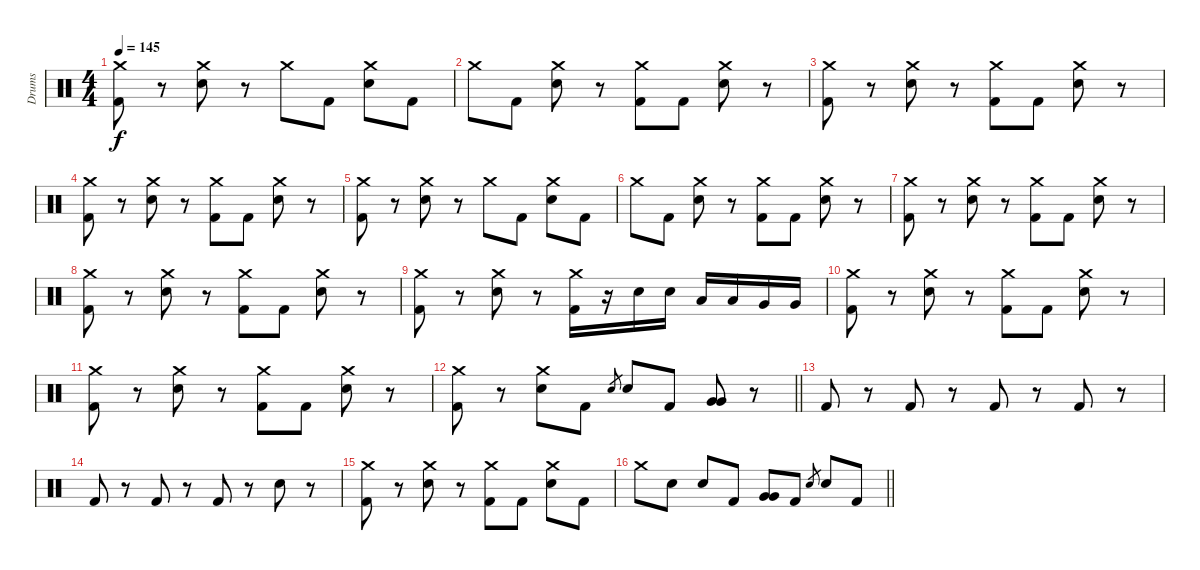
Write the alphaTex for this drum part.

\track ("Drums" "Drums") {instrument percussion}
\staff {score}
\articulation defaults
\ts (4 4)
\tempo 145
\clef neutral
\ks c
("Crash medium (hit)" "Kick (hit) 2").8{dy f} r.8 ("Crash medium (hit)" "Electric Snare (hit)").8 r.8 "Crash medium (hit)".8 "Kick (hit) 2".8 ("Crash medium (hit)" "Electric Snare (hit)").8 "Kick (hit) 2".8 |
"Crash medium (hit)".8 "Kick (hit) 2".8 ("Crash medium (hit)" "Electric Snare (hit)").8 r.8 ("Crash medium (hit)" "Kick (hit) 2").8 "Kick (hit) 2".8 ("Crash medium (hit)" "Electric Snare (hit)").8 r.8 |
("Crash medium (hit)" "Kick (hit) 2").8 r.8 ("Crash medium (hit)" "Electric Snare (hit)").8 r.8 ("Crash medium (hit)" "Kick (hit) 2").8 "Kick (hit) 2".8 ("Crash medium (hit)" "Electric Snare (hit)").8 r.8 |
("Crash medium (hit)" "Kick (hit) 2").8 r.8 ("Crash medium (hit)" "Electric Snare (hit)").8 r.8 ("Crash medium (hit)" "Kick (hit) 2").8 "Kick (hit) 2".8 ("Crash medium (hit)" "Electric Snare (hit)").8 r.8 |
("Crash medium (hit)" "Kick (hit) 2").8 r.8 ("Crash medium (hit)" "Electric Snare (hit)").8 r.8 "Crash medium (hit)".8 "Kick (hit) 2".8 ("Crash medium (hit)" "Electric Snare (hit)").8 "Kick (hit) 2".8 |
"Crash medium (hit)".8 "Kick (hit) 2".8 ("Crash medium (hit)" "Electric Snare (hit)").8 r.8 ("Crash medium (hit)" "Kick (hit) 2").8 "Kick (hit) 2".8 ("Crash medium (hit)" "Electric Snare (hit)").8 r.8 |
("Crash medium (hit)" "Kick (hit) 2").8 r.8 ("Crash medium (hit)" "Electric Snare (hit)").8 r.8 ("Crash medium (hit)" "Kick (hit) 2").8 "Kick (hit) 2".8 ("Crash medium (hit)" "Electric Snare (hit)").8 r.8 |
("Crash medium (hit)" "Kick (hit) 2").8 r.8 ("Crash medium (hit)" "Electric Snare (hit)").8 r.8 ("Crash medium (hit)" "Kick (hit) 2").8 "Kick (hit) 2".8 ("Crash medium (hit)" "Electric Snare (hit)").8 r.8 |
("Crash medium (hit)" "Kick (hit) 2").8 r.8 ("Crash medium (hit)" "Electric Snare (hit)").8 r.8 ("Crash medium (hit)" "Kick (hit) 2").16 r.16 "Electric Snare (hit)".16 "Electric Snare (hit)".16 "Low Tom (hit)".16 "Low Tom (hit)".16 "Very Low Tom (hit)".16 "Very Low Tom (hit)".16 |
("Crash medium (hit)" "Kick (hit) 2").8 r.8 ("Crash medium (hit)" "Electric Snare (hit)").8 r.8 ("Crash medium (hit)" "Kick (hit) 2").8 "Kick (hit) 2".8 ("Crash medium (hit)" "Electric Snare (hit)").8 r.8 |
("Crash medium (hit)" "Kick (hit) 2").8 r.8 ("Crash medium (hit)" "Electric Snare (hit)").8 r.8 ("Crash medium (hit)" "Kick (hit) 2").8 "Kick (hit) 2".8 ("Crash medium (hit)" "Electric Snare (hit)").8 r.8 |
\barLineRight lightlight
("Crash medium (hit)" "Kick (hit) 2").8 r.8 ("Crash medium (hit)" "Electric Snare (hit)").8 "Kick (hit) 2".8 "Electric Snare (hit)".8{gr} "Electric Snare (hit)".8 "Kick (hit) 2".8 ("Very Low Tom (hit)" "Very Low Tom (hit)").8 r.8 |
\section ("" "")
"Kick (hit) 2".8 r.8 "Kick (hit) 2".8 r.8 "Kick (hit) 2".8 r.8 "Kick (hit) 2".8 r.8 |
"Kick (hit) 2".8 r.8 "Kick (hit) 2".8 r.8 "Kick (hit) 2".8 r.8 "Electric Snare (hit)".8 r.8 |
("Crash medium (hit)" "Kick (hit) 2").8 r.8 ("Crash medium (hit)" "Electric Snare (hit)").8 r.8 ("Crash medium (hit)" "Kick (hit) 2").8 "Kick (hit) 2".8 ("Crash medium (hit)" "Electric Snare (hit)").8 "Kick (hit) 2".8 |
\barLineRight lightlight "Crash medium (hit)".8 "Electric Snare (hit)".8 "Electric Snare (hit)".8 "Kick (hit) 2".8
("Very Low Tom (hit)" "Very Low Tom (hit)").8 "Kick (hit) 2".8 "Electric Snare (hit)".8{gr} "Electric Snare (hit)".8 "Kick (hit) 2".8
